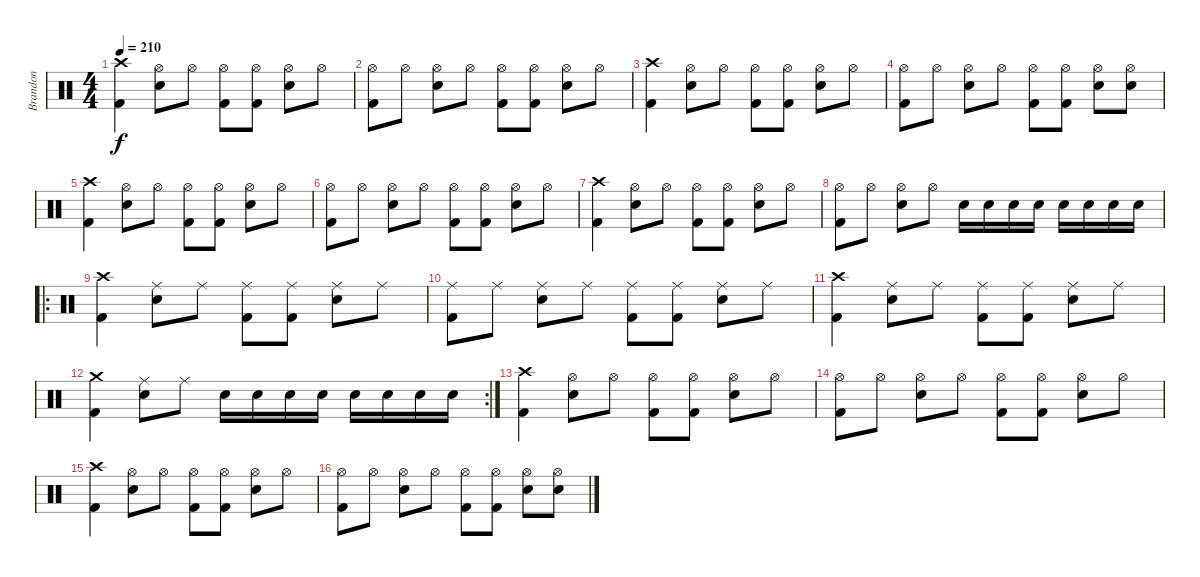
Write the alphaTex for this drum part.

\track ("Brandon" "Brandon") {instrument percussion}
\staff {score}
\articulation defaults
\ts (4 4)
\tempo 210
\clef neutral
\ks c
("Crash high (hit)" "Kick (hit) 2").4{dy f} ("Snare (hit) 2" "Hi-Hat (open)").8 "Hi-Hat (open)".8 ("Kick (hit) 2" "Hi-Hat (open)").8 ("Kick (hit) 2" "Hi-Hat (open)").8 ("Snare (hit) 2" "Hi-Hat (open)").8 "Hi-Hat (open)".8 |
("Hi-Hat (open)" "Kick (hit) 2").8 "Hi-Hat (open)".8 ("Snare (hit) 2" "Hi-Hat (open)").8 "Hi-Hat (open)".8 ("Kick (hit) 2" "Hi-Hat (open)").8 ("Kick (hit) 2" "Hi-Hat (open)").8 ("Snare (hit) 2" "Hi-Hat (open)").8 "Hi-Hat (open)".8 |
("Crash high (hit)" "Kick (hit) 2").4 ("Snare (hit) 2" "Hi-Hat (open)").8 "Hi-Hat (open)".8 ("Kick (hit) 2" "Hi-Hat (open)").8 ("Kick (hit) 2" "Hi-Hat (open)").8 ("Snare (hit) 2" "Hi-Hat (open)").8 "Hi-Hat (open)".8 |
("Hi-Hat (open)" "Kick (hit) 2").8 "Hi-Hat (open)".8 ("Snare (hit) 2" "Hi-Hat (open)").8 "Hi-Hat (open)".8 ("Kick (hit) 2" "Hi-Hat (open)").8 ("Kick (hit) 2" "Hi-Hat (open)").8 ("Snare (hit) 2" "Hi-Hat (open)").8 ("Hi-Hat (open)" "Snare (hit) 2").8 |
("Crash high (hit)" "Kick (hit) 2").4 ("Snare (hit) 2" "Hi-Hat (open)").8 "Hi-Hat (open)".8 ("Kick (hit) 2" "Hi-Hat (open)").8 ("Kick (hit) 2" "Hi-Hat (open)").8 ("Snare (hit) 2" "Hi-Hat (open)").8 "Hi-Hat (open)".8 |
("Hi-Hat (open)" "Kick (hit) 2").8 "Hi-Hat (open)".8 ("Snare (hit) 2" "Hi-Hat (open)").8 "Hi-Hat (open)".8 ("Kick (hit) 2" "Hi-Hat (open)").8 ("Kick (hit) 2" "Hi-Hat (open)").8 ("Snare (hit) 2" "Hi-Hat (open)").8 "Hi-Hat (open)".8 |
("Crash high (hit)" "Kick (hit) 2").4 ("Snare (hit) 2" "Hi-Hat (open)").8 "Hi-Hat (open)".8 ("Kick (hit) 2" "Hi-Hat (open)").8 ("Kick (hit) 2" "Hi-Hat (open)").8 ("Snare (hit) 2" "Hi-Hat (open)").8 "Hi-Hat (open)".8 |
("Hi-Hat (open)" "Kick (hit) 2").8 "Hi-Hat (open)".8 ("Snare (hit) 2" "Hi-Hat (open)").8 "Hi-Hat (open)".8 "Snare (hit) 2".16 "Snare (hit) 2".16 "Snare (hit) 2".16 "Snare (hit) 2".16 "Snare (hit) 2".16 "Snare (hit) 2".16 "Snare (hit) 2".16 "Snare (hit) 2".16 |
\ro
("Kick (hit) 2" "Crash high (hit)").4 ("Snare (hit) 2" "Ride (middle)").8 "Ride (middle)".8 ("Kick (hit) 2" "Ride (middle)").8 ("Kick (hit) 2" "Ride (middle)").8 ("Snare (hit) 2" "Ride (middle)").8 "Ride (middle)".8 |
("Ride (middle)" "Kick (hit) 2").8 "Ride (middle)".8 ("Snare (hit) 2" "Ride (middle)").8 "Ride (middle)".8 ("Kick (hit) 2" "Ride (middle)").8 ("Kick (hit) 2" "Ride (middle)").8 ("Snare (hit) 2" "Ride (middle)").8 "Ride (middle)".8 |
("Kick (hit) 2" "Crash high (hit)").4 ("Snare (hit) 2" "Ride (middle)").8 "Ride (middle)".8 ("Kick (hit) 2" "Ride (middle)").8 ("Kick (hit) 2" "Ride (middle)").8 ("Snare (hit) 2" "Ride (middle)").8 "Ride (middle)".8 |
\rc 2
("Kick (hit) 2" "Crash medium (hit)").4 ("Snare (hit) 2" "Ride (middle)").8 "Ride (middle)".8 "Snare (hit) 2".16 "Snare (hit) 2".16 "Snare (hit) 2".16 "Snare (hit) 2".16 "Snare (hit) 2".16 "Snare (hit) 2".16 "Snare (hit) 2".16 "Snare (hit) 2".16 |
("Crash high (hit)" "Kick (hit) 2").4 ("Snare (hit) 2" "Hi-Hat (open)").8 "Hi-Hat (open)".8 ("Kick (hit) 2" "Hi-Hat (open)").8 ("Kick (hit) 2" "Hi-Hat (open)").8 ("Snare (hit) 2" "Hi-Hat (open)").8 "Hi-Hat (open)".8 |
("Hi-Hat (open)" "Kick (hit) 2").8 "Hi-Hat (open)".8 ("Snare (hit) 2" "Hi-Hat (open)").8 "Hi-Hat (open)".8 ("Kick (hit) 2" "Hi-Hat (open)").8 ("Kick (hit) 2" "Hi-Hat (open)").8 ("Snare (hit) 2" "Hi-Hat (open)").8 "Hi-Hat (open)".8 |
("Crash high (hit)" "Kick (hit) 2").4 ("Snare (hit) 2" "Hi-Hat (open)").8 "Hi-Hat (open)".8 ("Kick (hit) 2" "Hi-Hat (open)").8 ("Kick (hit) 2" "Hi-Hat (open)").8 ("Snare (hit) 2" "Hi-Hat (open)").8 "Hi-Hat (open)".8 |
("Hi-Hat (open)" "Kick (hit) 2").8 "Hi-Hat (open)".8 ("Snare (hit) 2" "Hi-Hat (open)").8 "Hi-Hat (open)".8 ("Kick (hit) 2" "Hi-Hat (open)").8 ("Kick (hit) 2" "Hi-Hat (open)").8 ("Snare (hit) 2" "Hi-Hat (open)").8 ("Hi-Hat (open)" "Snare (hit) 2").8
